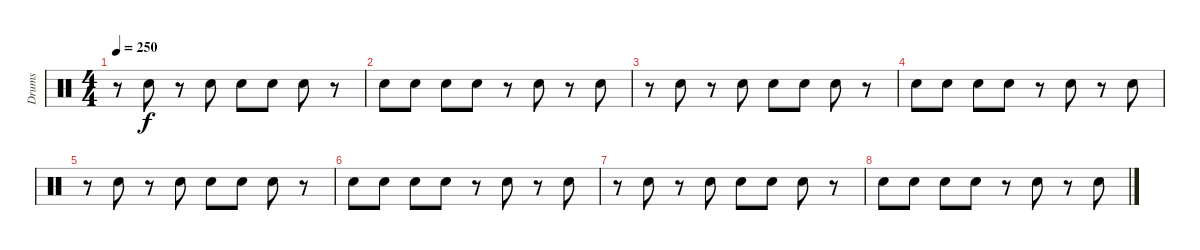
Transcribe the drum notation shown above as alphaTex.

\track ("Drums" "Drums") {instrument percussion}
\staff {score}
\articulation defaults
\ts (4 4)
\tempo 250
\clef neutral
\ks c
r.8{dy f} "Electric Snare (hit)".8 r.8 "Electric Snare (hit)".8 "Electric Snare (hit)".8 "Electric Snare (hit)".8 "Electric Snare (hit)".8 r.8 |
"Electric Snare (hit)".8 "Electric Snare (hit)".8 "Electric Snare (hit)".8 "Electric Snare (hit)".8 r.8 "Electric Snare (hit)".8 r.8 "Electric Snare (hit)".8 |
r.8 "Electric Snare (hit)".8 r.8 "Electric Snare (hit)".8 "Electric Snare (hit)".8 "Electric Snare (hit)".8 "Electric Snare (hit)".8 r.8 |
"Electric Snare (hit)".8 "Electric Snare (hit)".8 "Electric Snare (hit)".8 "Electric Snare (hit)".8 r.8 "Electric Snare (hit)".8 r.8 "Electric Snare (hit)".8 |
r.8 "Electric Snare (hit)".8 r.8 "Electric Snare (hit)".8 "Electric Snare (hit)".8 "Electric Snare (hit)".8 "Electric Snare (hit)".8 r.8 |
"Electric Snare (hit)".8 "Electric Snare (hit)".8 "Electric Snare (hit)".8 "Electric Snare (hit)".8 r.8 "Electric Snare (hit)".8 r.8 "Electric Snare (hit)".8 |
r.8 "Electric Snare (hit)".8 r.8 "Electric Snare (hit)".8 "Electric Snare (hit)".8 "Electric Snare (hit)".8 "Electric Snare (hit)".8 r.8 |
"Electric Snare (hit)".8 "Electric Snare (hit)".8 "Electric Snare (hit)".8 "Electric Snare (hit)".8 r.8 "Electric Snare (hit)".8 r.8 "Electric Snare (hit)".8
